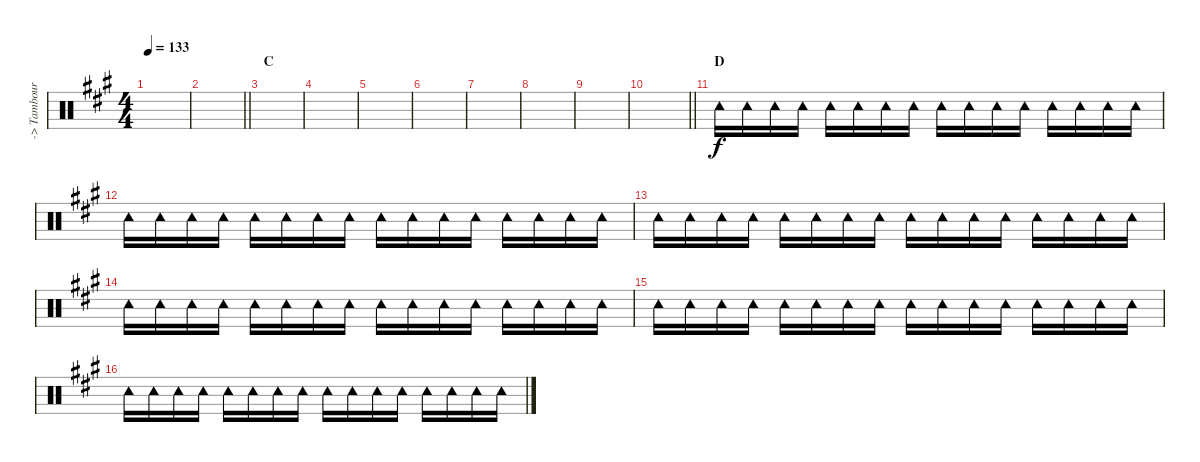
\track ("-> Tambourine" "-> Tambour") {instrument percussion}
\staff {score}
\articulation defaults
\ts (4 4)
\tempo 133
\clef neutral
\ks a
|
\barLineRight lightlight
|
\section ("" "C")
|
|
|
|
|
|
|
\barLineRight lightlight
|
\section ("" "D")
"Tambourine (hit)".16{volume 8} "Tambourine (hit)".16 "Tambourine (hit)".16 "Tambourine (hit)".16 "Tambourine (hit)".16 "Tambourine (hit)".16 "Tambourine (hit)".16 "Tambourine (hit)".16 "Tambourine (hit)".16 "Tambourine (hit)".16 "Tambourine (hit)".16 "Tambourine (hit)".16 "Tambourine (hit)".16 "Tambourine (hit)".16 "Tambourine (hit)".16 "Tambourine (hit)".16 |
"Tambourine (hit)".16 "Tambourine (hit)".16 "Tambourine (hit)".16 "Tambourine (hit)".16 "Tambourine (hit)".16 "Tambourine (hit)".16 "Tambourine (hit)".16 "Tambourine (hit)".16 "Tambourine (hit)".16 "Tambourine (hit)".16 "Tambourine (hit)".16 "Tambourine (hit)".16 "Tambourine (hit)".16 "Tambourine (hit)".16 "Tambourine (hit)".16 "Tambourine (hit)".16 |
"Tambourine (hit)".16 "Tambourine (hit)".16 "Tambourine (hit)".16 "Tambourine (hit)".16 "Tambourine (hit)".16 "Tambourine (hit)".16 "Tambourine (hit)".16 "Tambourine (hit)".16 "Tambourine (hit)".16 "Tambourine (hit)".16 "Tambourine (hit)".16 "Tambourine (hit)".16 "Tambourine (hit)".16 "Tambourine (hit)".16 "Tambourine (hit)".16 "Tambourine (hit)".16 |
"Tambourine (hit)".16 "Tambourine (hit)".16 "Tambourine (hit)".16 "Tambourine (hit)".16 "Tambourine (hit)".16 "Tambourine (hit)".16 "Tambourine (hit)".16 "Tambourine (hit)".16 "Tambourine (hit)".16 "Tambourine (hit)".16 "Tambourine (hit)".16 "Tambourine (hit)".16 "Tambourine (hit)".16 "Tambourine (hit)".16 "Tambourine (hit)".16 "Tambourine (hit)".16 |
"Tambourine (hit)".16 "Tambourine (hit)".16 "Tambourine (hit)".16 "Tambourine (hit)".16 "Tambourine (hit)".16 "Tambourine (hit)".16 "Tambourine (hit)".16 "Tambourine (hit)".16 "Tambourine (hit)".16 "Tambourine (hit)".16 "Tambourine (hit)".16 "Tambourine (hit)".16 "Tambourine (hit)".16 "Tambourine (hit)".16 "Tambourine (hit)".16 "Tambourine (hit)".16 |
"Tambourine (hit)".16 "Tambourine (hit)".16 "Tambourine (hit)".16 "Tambourine (hit)".16 "Tambourine (hit)".16 "Tambourine (hit)".16 "Tambourine (hit)".16 "Tambourine (hit)".16 "Tambourine (hit)".16 "Tambourine (hit)".16 "Tambourine (hit)".16 "Tambourine (hit)".16 "Tambourine (hit)".16 "Tambourine (hit)".16 "Tambourine (hit)".16 "Tambourine (hit)".16
